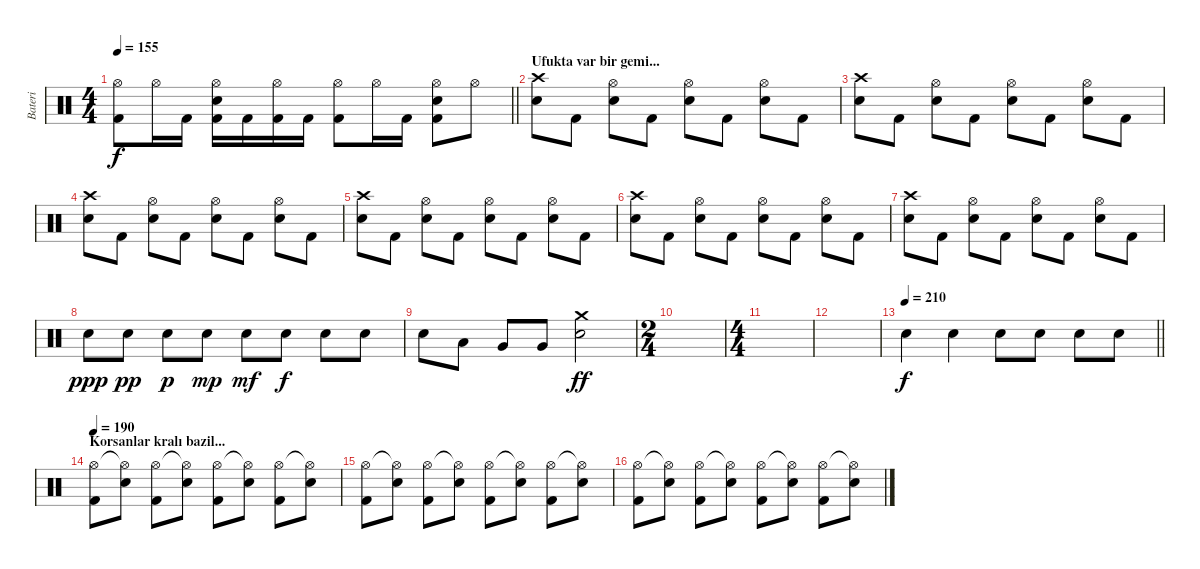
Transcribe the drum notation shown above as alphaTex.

\track ("Bateri" "Bateri") {instrument percussion}
\staff {score}
\articulation defaults
\ts (4 4)
\tempo 155
\clef neutral
\barLineRight lightlight
\ks c
("Hi-Hat (open)" "Kick (hit) 2").8{dy f} "Hi-Hat (open)".16 "Kick (hit) 2".16 ("Hi-Hat (open)" "Snare (hit) 2" "Kick (hit) 2").16 "Kick (hit) 2".16 ("Hi-Hat (open)" "Kick (hit) 2").16 "Kick (hit) 2".16 ("Hi-Hat (open)" "Kick (hit) 2").8 "Hi-Hat (open)".16 "Kick (hit) 2".16 ("Hi-Hat (open)" "Snare (hit) 2" "Kick (hit) 2").8 "Hi-Hat (open)".8 |
\section ("" "Ufukta var bir gemi...")
("Crash high (hit)" "Snare (hit) 2").8 "Kick (hit) 2".8 ("Hi-Hat (open)" "Snare (hit) 2").8 "Kick (hit) 2".8 ("Hi-Hat (open)" "Snare (hit) 2").8 "Kick (hit) 2".8 ("Hi-Hat (open)" "Snare (hit) 2").8 "Kick (hit) 2".8 |
("Crash high (hit)" "Snare (hit) 2").8 "Kick (hit) 2".8 ("Hi-Hat (open)" "Snare (hit) 2").8 "Kick (hit) 2".8 ("Hi-Hat (open)" "Snare (hit) 2").8 "Kick (hit) 2".8 ("Hi-Hat (open)" "Snare (hit) 2").8 "Kick (hit) 2".8 |
("Crash high (hit)" "Snare (hit) 2").8 "Kick (hit) 2".8 ("Hi-Hat (open)" "Snare (hit) 2").8 "Kick (hit) 2".8 ("Hi-Hat (open)" "Snare (hit) 2").8 "Kick (hit) 2".8 ("Hi-Hat (open)" "Snare (hit) 2").8 "Kick (hit) 2".8 |
("Crash high (hit)" "Snare (hit) 2").8 "Kick (hit) 2".8 ("Hi-Hat (open)" "Snare (hit) 2").8 "Kick (hit) 2".8 ("Hi-Hat (open)" "Snare (hit) 2").8 "Kick (hit) 2".8 ("Hi-Hat (open)" "Snare (hit) 2").8 "Kick (hit) 2".8 |
("Crash high (hit)" "Snare (hit) 2").8 "Kick (hit) 2".8 ("Hi-Hat (open)" "Snare (hit) 2").8 "Kick (hit) 2".8 ("Hi-Hat (open)" "Snare (hit) 2").8 "Kick (hit) 2".8 ("Hi-Hat (open)" "Snare (hit) 2").8 "Kick (hit) 2".8 |
("Crash high (hit)" "Snare (hit) 2").8 "Kick (hit) 2".8 ("Hi-Hat (open)" "Snare (hit) 2").8 "Kick (hit) 2".8 ("Hi-Hat (open)" "Snare (hit) 2").8 "Kick (hit) 2".8 ("Hi-Hat (open)" "Snare (hit) 2").8 "Kick (hit) 2".8 |
"Snare (hit) 2".8{dy ppp} "Snare (hit) 2".8{dy pp} "Snare (hit) 2".8{dy p} "Snare (hit) 2".8{dy mp} "Snare (hit) 2".8{dy mf} "Snare (hit) 2".8{dy f} "Snare (hit) 2".8 "Snare (hit) 2".8 |
"Snare (hit) 2".8 "Low Tom (hit)".8 "Very Low Tom (hit)".8 "Very Low Tom (hit)".8 ("Crash medium (hit)" "Snare (hit) 2").2{dy ff} |
\ts (2 4)
|
\ts (4 4)
|
|
\tempo 210
\barLineRight lightlight "Snare (hit) 2".4{dy f} "Snare (hit) 2".4 "Snare (hit) 2".8 "Snare (hit) 2".8 "Snare (hit) 2".8 "Snare (hit) 2".8
|
\section ("" "Korsanlar kralı bazil...")
\tempo 190
("Hi-Hat (open)" "Kick (hit) 2").8 ("Hi-Hat (open)"{t} "Snare (hit) 2").8 ("Hi-Hat (open)" "Kick (hit) 2").8 ("Hi-Hat (open)"{t} "Snare (hit) 2").8 ("Hi-Hat (open)" "Kick (hit) 2").8 ("Hi-Hat (open)"{t} "Snare (hit) 2").8 ("Hi-Hat (open)" "Kick (hit) 2").8 ("Hi-Hat (open)"{t} "Snare (hit) 2").8 |
("Hi-Hat (open)" "Kick (hit) 2").8 ("Hi-Hat (open)"{t} "Snare (hit) 2").8 ("Hi-Hat (open)" "Kick (hit) 2").8 ("Hi-Hat (open)"{t} "Snare (hit) 2").8 ("Hi-Hat (open)" "Kick (hit) 2").8 ("Hi-Hat (open)"{t} "Snare (hit) 2").8 ("Hi-Hat (open)" "Kick (hit) 2").8 ("Hi-Hat (open)"{t} "Snare (hit) 2").8 |
("Hi-Hat (open)" "Kick (hit) 2").8 ("Hi-Hat (open)"{t} "Snare (hit) 2").8 ("Hi-Hat (open)" "Kick (hit) 2").8 ("Hi-Hat (open)"{t} "Snare (hit) 2").8 ("Hi-Hat (open)" "Kick (hit) 2").8 ("Hi-Hat (open)"{t} "Snare (hit) 2").8 ("Hi-Hat (open)" "Kick (hit) 2").8 ("Hi-Hat (open)"{t} "Snare (hit) 2").8
